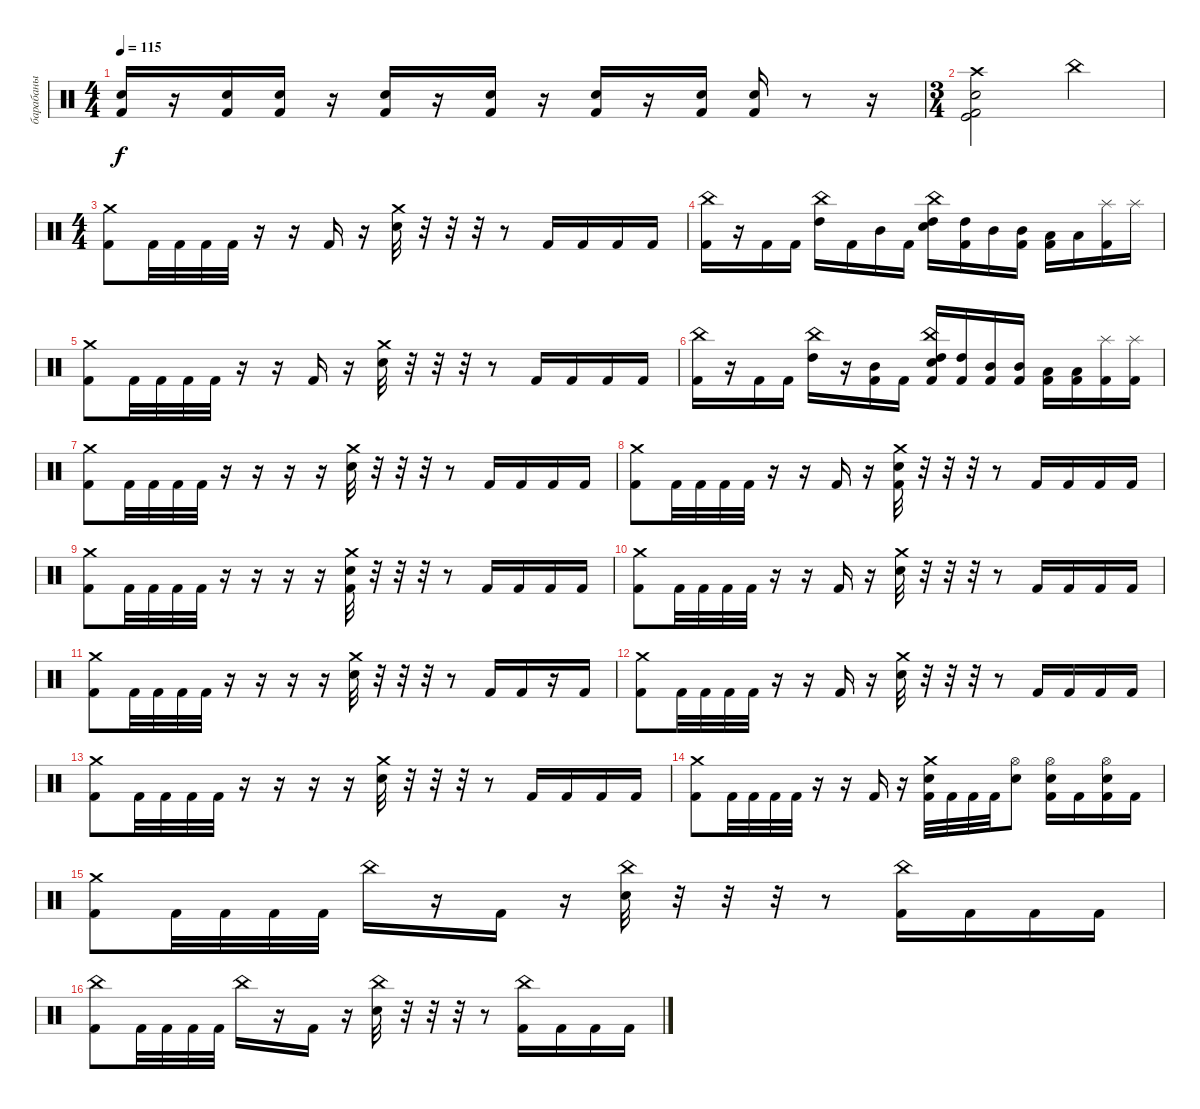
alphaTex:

\track ("барабаны" "барабаны") {instrument percussion}
\staff {score}
\articulation defaults
\ts (4 4)
\tempo 115
\clef neutral
\ks c
("Snare (hit) 2" "Kick (hit) 2").16{dy f} r.16 ("Snare (hit) 2" "Kick (hit) 2").16 ("Snare (hit) 2" "Kick (hit) 2").16 r.16 ("Snare (hit) 2" "Kick (hit) 2").16 r.16 ("Snare (hit) 2" "Kick (hit) 2").16 r.16 ("Kick (hit) 2" "Snare (hit) 2").16 r.16 ("Kick (hit) 2" "Snare (hit) 2").16 ("Kick (hit) 2" "Snare (hit) 2").16 r.8 r.16 |
\ts (3 4)
("Kick (hit)" "Snare (hit) 2" "Kick (hit) 2" "Crash high (hit)").2 "China (hit)".4 |
\ts (4 4)
("Crash medium (hit)" "Kick (hit) 2").8 "Kick (hit) 2".32 "Kick (hit) 2".32 "Kick (hit) 2".32 "Kick (hit) 2".32 r.16 r.16 "Kick (hit) 2".16 r.16 ("Crash medium (hit)" "Snare (hit) 2").32 r.32 r.32 r.32 r.8 "Kick (hit) 2".16 "Kick (hit) 2".16 "Kick (hit) 2".16 "Kick (hit) 2".16 |
("China (hit)" "Kick (hit) 2").16 r.16 "Kick (hit) 2".16 "Kick (hit) 2".16 ("China (hit)" "High Tom (hit)").16 "Kick (hit) 2".16 "Mid Tom (hit)".16 "Kick (hit) 2".16 ("China (hit)" "Electric Snare (hit)" "High Tom (hit)").16 ("High Tom (hit)" "Kick (hit) 2").16 "Mid Tom (hit)".16 ("Mid Tom (hit)" "Kick (hit) 2").16 ("Low Tom (hit)" "Kick (hit) 2").16 "Low Tom (hit)".16 ("Splash (hit)" "Kick (hit) 2").16 "Splash (hit)".16 |
("Crash medium (hit)" "Kick (hit) 2").8 "Kick (hit) 2".32 "Kick (hit) 2".32 "Kick (hit) 2".32 "Kick (hit) 2".32 r.16 r.16 "Kick (hit) 2".16 r.16 ("Crash medium (hit)" "Snare (hit) 2").32 r.32 r.32 r.32 r.8 "Kick (hit) 2".16 "Kick (hit) 2".16 "Kick (hit) 2".16 "Kick (hit) 2".16 |
("China (hit)" "Kick (hit) 2").16 r.16 "Kick (hit) 2".16 "Kick (hit) 2".16 ("China (hit)" "High Tom (hit)").16 r.16 ("Mid Tom (hit)" "Kick (hit) 2").16 "Kick (hit) 2".16 ("China (hit)" "Electric Snare (hit)" "High Tom (hit)" "Kick (hit) 2").16 ("High Tom (hit)" "Kick (hit) 2").16 ("Mid Tom (hit)" "Kick (hit) 2").16 ("Mid Tom (hit)" "Kick (hit) 2").16 ("Low Tom (hit)" "Kick (hit) 2").16 ("Low Tom (hit)" "Kick (hit) 2").16 ("Splash (hit)" "Kick (hit) 2").16 ("Splash (hit)" "Kick (hit) 2").16 |
("Crash medium (hit)" "Kick (hit) 2").8 "Kick (hit) 2".32 "Kick (hit) 2".32 "Kick (hit) 2".32 "Kick (hit) 2".32 r.16 r.16 r.16 r.16 ("Crash medium (hit)" "Snare (hit) 2").32 r.32 r.32 r.32 r.8 "Kick (hit) 2".16 "Kick (hit) 2".16 "Kick (hit) 2".16 "Kick (hit) 2".16 |
("Crash medium (hit)" "Kick (hit) 2").8 "Kick (hit) 2".32 "Kick (hit) 2".32 "Kick (hit) 2".32 "Kick (hit) 2".32 r.16 r.16 "Kick (hit) 2".16 r.16 ("Crash medium (hit)" "Snare (hit) 2" "Kick (hit) 2").32 r.32 r.32 r.32 r.8 "Kick (hit) 2".16 "Kick (hit) 2".16 "Kick (hit) 2".16 "Kick (hit) 2".16 |
("Crash medium (hit)" "Kick (hit) 2").8 "Kick (hit) 2".32 "Kick (hit) 2".32 "Kick (hit) 2".32 "Kick (hit) 2".32 r.16 r.16 r.16 r.16 ("Crash medium (hit)" "Snare (hit) 2" "Kick (hit) 2").32 r.32 r.32 r.32 r.8 "Kick (hit) 2".16 "Kick (hit) 2".16 "Kick (hit) 2".16 "Kick (hit) 2".16 |
("Crash medium (hit)" "Kick (hit) 2").8 "Kick (hit) 2".32 "Kick (hit) 2".32 "Kick (hit) 2".32 "Kick (hit) 2".32 r.16 r.16 "Kick (hit) 2".16 r.16 ("Crash medium (hit)" "Snare (hit) 2").32 r.32 r.32 r.32 r.8 "Kick (hit) 2".16 "Kick (hit) 2".16 "Kick (hit) 2".16 "Kick (hit) 2".16 |
("Crash medium (hit)" "Kick (hit) 2").8 "Kick (hit) 2".32 "Kick (hit) 2".32 "Kick (hit) 2".32 "Kick (hit) 2".32 r.16 r.16 r.16 r.16 ("Crash medium (hit)" "Snare (hit) 2").32 r.32 r.32 r.32 r.8 "Kick (hit) 2".16 "Kick (hit) 2".16 r.16 "Kick (hit) 2".16 |
("Crash medium (hit)" "Kick (hit) 2").8 "Kick (hit) 2".32 "Kick (hit) 2".32 "Kick (hit) 2".32 "Kick (hit) 2".32 r.16 r.16 "Kick (hit) 2".16 r.16 ("Crash medium (hit)" "Snare (hit) 2").32 r.32 r.32 r.32 r.8 "Kick (hit) 2".16 "Kick (hit) 2".16 "Kick (hit) 2".16 "Kick (hit) 2".16 |
("Crash medium (hit)" "Kick (hit) 2").8 "Kick (hit) 2".32 "Kick (hit) 2".32 "Kick (hit) 2".32 "Kick (hit) 2".32 r.16 r.16 r.16 r.16 ("Crash medium (hit)" "Snare (hit) 2").32 r.32 r.32 r.32 r.8 "Kick (hit) 2".16 "Kick (hit) 2".16 "Kick (hit) 2".16 "Kick (hit) 2".16 |
("Crash medium (hit)" "Kick (hit) 2").8 "Kick (hit) 2".32 "Kick (hit) 2".32 "Kick (hit) 2".32 "Kick (hit) 2".32 r.16 r.16 "Kick (hit) 2".16 r.16 ("Crash medium (hit)" "Snare (hit) 2" "Kick (hit) 2").32 "Kick (hit) 2".32 "Kick (hit) 2".32 "Kick (hit) 2".32 ("Hi-Hat (open)" "Snare (hit) 2").8 ("Hi-Hat (open)" "Snare (hit) 2" "Kick (hit) 2").16 "Kick (hit) 2".16 ("Hi-Hat (open)" "Snare (hit) 2" "Kick (hit) 2").16 "Kick (hit) 2".16 |
("Crash medium (hit)" "Kick (hit) 2").8 "Kick (hit) 2".32 "Kick (hit) 2".32 "Kick (hit) 2".32 "Kick (hit) 2".32 "China (hit)".16 r.16 "Kick (hit) 2".16 r.16 ("China (hit)" "Snare (hit) 2").32 r.32 r.32 r.32 r.8 ("China (hit)" "Kick (hit) 2").16 "Kick (hit) 2".16 "Kick (hit) 2".16 "Kick (hit) 2".16 |
("China (hit)" "Kick (hit) 2").8 "Kick (hit) 2".32 "Kick (hit) 2".32 "Kick (hit) 2".32 "Kick (hit) 2".32 "China (hit)".16 r.16 "Kick (hit) 2".16 r.16 ("China (hit)" "Snare (hit) 2").32 r.32 r.32 r.32 r.8 ("China (hit)" "Kick (hit) 2").16 "Kick (hit) 2".16 "Kick (hit) 2".16 "Kick (hit) 2".16
